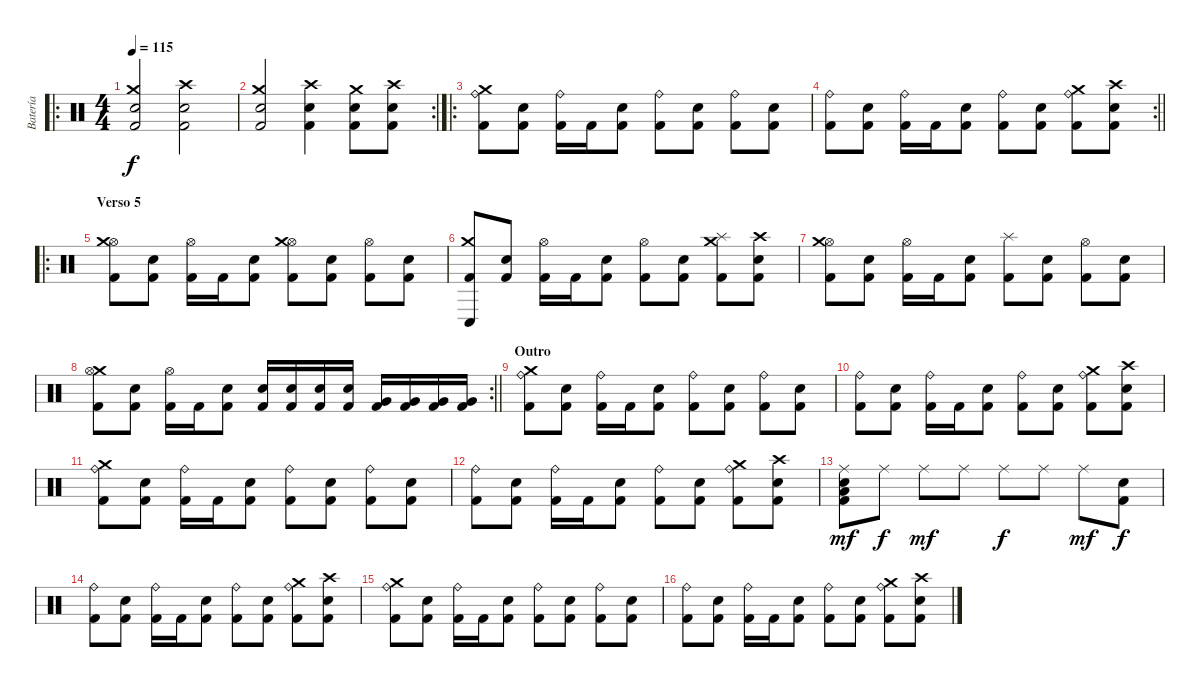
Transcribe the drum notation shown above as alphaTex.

\track ("Batería" "Batería") {instrument percussion}
\staff {score}
\articulation defaults
\ro
\ts (4 4)
\tempo 115
\clef neutral
\ks c
("Snare (hit) 2" "Crash medium (hit)" "Kick (hit) 2").2{dy f} ("Snare (hit) 2" "Crash high (hit)" "Kick (hit) 2").2 |
\rc 2
("Snare (hit) 2" "Crash medium (hit)" "Kick (hit) 2").2 ("Snare (hit) 2" "Crash high (hit)" "Kick (hit) 2").4 ("Crash medium (hit)" "Snare (hit) 2" "Kick (hit) 2").8 ("Crash high (hit)" "Snare (hit) 2" "Kick (hit) 2").8 |
\ro
("Ride (bell)" "Crash medium (hit)" "Kick (hit) 2").8 ("Snare (hit) 2" "Kick (hit) 2").8 ("Ride (bell)" "Kick (hit) 2").16 "Kick (hit) 2".16 ("Snare (hit) 2" "Kick (hit) 2").8 ("Ride (bell)" "Kick (hit) 2").8 ("Snare (hit) 2" "Kick (hit) 2").8 ("Ride (bell)" "Kick (hit) 2").8 ("Snare (hit) 2" "Kick (hit) 2").8 |
\rc 2
\barLineRight lightlight
("Ride (bell)" "Kick (hit) 2").8 ("Snare (hit) 2" "Kick (hit) 2").8 ("Ride (bell)" "Kick (hit) 2").16 "Kick (hit) 2".16 ("Snare (hit) 2" "Kick (hit) 2").8 ("Ride (bell)" "Kick (hit) 2").8 ("Snare (hit) 2" "Kick (hit) 2").8 ("Crash medium (hit)" "Ride (bell)" "Kick (hit) 2").8 ("Crash high (hit)" "Snare (hit) 2" "Kick (hit) 2").8 |
\ro
\section ("" "Verso 5")
("Hi-Hat (open)" "Crash medium (hit)" "Kick (hit) 2").8 ("Snare (hit) 2" "Kick (hit) 2").8 ("Hi-Hat (open)" "Kick (hit) 2").16 "Kick (hit) 2".16 ("Snare (hit) 2" "Kick (hit) 2").8 ("Hi-Hat (open)" "Crash medium (hit)" "Kick (hit) 2").8 ("Snare (hit) 2" "Kick (hit) 2").8 ("Hi-Hat (open)" "Kick (hit) 2").8 ("Snare (hit) 2" "Kick (hit) 2").8 |
("Conga low (hit)" "Crash medium (hit)" "Kick (hit) 2").8 ("Snare (hit) 2" "Kick (hit) 2").8 ("Hi-Hat (open)" "Kick (hit) 2").16 "Kick (hit) 2".16 ("Snare (hit) 2" "Kick (hit) 2").8 ("Hi-Hat (open)" "Kick (hit) 2").8 ("Snare (hit) 2" "Kick (hit) 2").8 ("Crash medium (hit)" "Splash (hit)" "Kick (hit) 2").8 ("Crash high (hit)" "Snare (hit) 2" "Kick (hit) 2").8 |
("Hi-Hat (open)" "Crash medium (hit)" "Kick (hit) 2").8 ("Snare (hit) 2" "Kick (hit) 2").8 ("Hi-Hat (open)" "Kick (hit) 2").16 "Kick (hit) 2".16 ("Snare (hit) 2" "Kick (hit) 2").8 ("Splash (hit)" "Kick (hit) 2").8 ("Snare (hit) 2" "Kick (hit) 2").8 ("Hi-Hat (open)" "Kick (hit) 2").8 ("Snare (hit) 2" "Kick (hit) 2").8 |
\rc 2
\barLineRight lightlight
("Crash medium (hit)" "Hi-Hat (open)" "Kick (hit) 2").8 ("Snare (hit) 2" "Kick (hit) 2").8 ("Hi-Hat (open)" "Kick (hit) 2").16 "Kick (hit) 2".16 ("Snare (hit) 2" "Kick (hit) 2").8 ("Snare (hit) 2" "Kick (hit) 2").16 ("Snare (hit) 2" "Kick (hit) 2").16 ("Snare (hit) 2" "Kick (hit) 2").16 ("Snare (hit) 2" "Kick (hit) 2").16 ("Very Low Tom (hit)" "Kick (hit) 2").16 ("Very Low Tom (hit)" "Kick (hit) 2").16 ("Very Low Tom (hit)" "Kick (hit) 2").16 ("Very Low Tom (hit)" "Kick (hit) 2").16 |
\section ("" "Outro")
("Ride (bell)" "Crash medium (hit)" "Kick (hit) 2").8 ("Snare (hit) 2" "Kick (hit) 2").8 ("Ride (bell)" "Kick (hit) 2").16 "Kick (hit) 2".16 ("Snare (hit) 2" "Kick (hit) 2").8 ("Ride (bell)" "Kick (hit) 2").8 ("Snare (hit) 2" "Kick (hit) 2").8 ("Ride (bell)" "Kick (hit) 2").8 ("Snare (hit) 2" "Kick (hit) 2").8 |
("Ride (bell)" "Kick (hit) 2").8 ("Snare (hit) 2" "Kick (hit) 2").8 ("Ride (bell)" "Kick (hit) 2").16 "Kick (hit) 2".16 ("Snare (hit) 2" "Kick (hit) 2").8 ("Ride (bell)" "Kick (hit) 2").8 ("Snare (hit) 2" "Kick (hit) 2").8 ("Crash medium (hit)" "Ride (bell)" "Kick (hit) 2").8 ("Crash high (hit)" "Snare (hit) 2" "Kick (hit) 2").8 |
("Ride (bell)" "Crash medium (hit)" "Kick (hit) 2").8 ("Snare (hit) 2" "Kick (hit) 2").8 ("Ride (bell)" "Kick (hit) 2").16 "Kick (hit) 2".16 ("Snare (hit) 2" "Kick (hit) 2").8 ("Ride (bell)" "Kick (hit) 2").8 ("Snare (hit) 2" "Kick (hit) 2").8 ("Ride (bell)" "Kick (hit) 2").8 ("Snare (hit) 2" "Kick (hit) 2").8 |
("Ride (bell)" "Kick (hit) 2").8 ("Snare (hit) 2" "Kick (hit) 2").8 ("Ride (bell)" "Kick (hit) 2").16 "Kick (hit) 2".16 ("Snare (hit) 2" "Kick (hit) 2").8 ("Ride (bell)" "Kick (hit) 2").8 ("Snare (hit) 2" "Kick (hit) 2").8 ("Crash medium (hit)" "Ride (bell)" "Kick (hit) 2").8 ("Crash high (hit)" "Snare (hit) 2" "Kick (hit) 2").8 |
("Ride (middle)" "Snare (hit) 2" "Low Floor Tom (hit)" "Kick (hit) 2").8{dy mf} "Ride (middle)".8{dy f} "Ride (middle)".8{dy mf} "Ride (middle)".8 "Ride (middle)".8{dy f} "Ride (middle)".8 "Ride (middle)".8{dy mf} ("Snare (hit) 2" "Kick (hit) 2").8{dy f} |
("Ride (bell)" "Kick (hit) 2").8 ("Snare (hit) 2" "Kick (hit) 2").8 ("Ride (bell)" "Kick (hit) 2").16 "Kick (hit) 2".16 ("Snare (hit) 2" "Kick (hit) 2").8 ("Ride (bell)" "Kick (hit) 2").8 ("Snare (hit) 2" "Kick (hit) 2").8 ("Crash medium (hit)" "Ride (bell)" "Kick (hit) 2").8 ("Crash high (hit)" "Snare (hit) 2" "Kick (hit) 2").8 |
("Ride (bell)" "Crash medium (hit)" "Kick (hit) 2").8 ("Snare (hit) 2" "Kick (hit) 2").8 ("Ride (bell)" "Kick (hit) 2").16 "Kick (hit) 2".16 ("Snare (hit) 2" "Kick (hit) 2").8 ("Ride (bell)" "Kick (hit) 2").8 ("Snare (hit) 2" "Kick (hit) 2").8 ("Ride (bell)" "Kick (hit) 2").8 ("Snare (hit) 2" "Kick (hit) 2").8 |
("Ride (bell)" "Kick (hit) 2").8 ("Snare (hit) 2" "Kick (hit) 2").8 ("Ride (bell)" "Kick (hit) 2").16 "Kick (hit) 2".16 ("Snare (hit) 2" "Kick (hit) 2").8 ("Ride (bell)" "Kick (hit) 2").8 ("Snare (hit) 2" "Kick (hit) 2").8 ("Crash medium (hit)" "Ride (bell)" "Kick (hit) 2").8 ("Crash high (hit)" "Snare (hit) 2" "Kick (hit) 2").8
